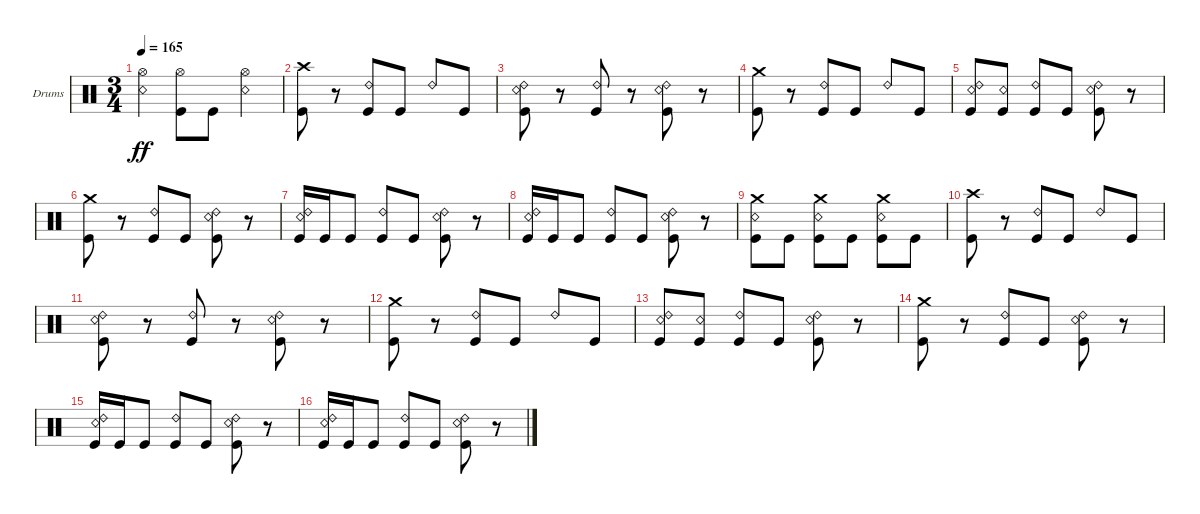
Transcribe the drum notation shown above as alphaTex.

\bracketExtendMode groupsimilarinstruments
\firstSystemTrackNameOrientation horizontal
\otherSystemsTrackNameOrientation horizontal
\track ("Kaleb - Drums" "Drums") {instrument percussion}
\staff {score}
\articulation defaults
\ts (3 4)
\tempo 165
\clef neutral
\ks c
("Hi-Hat (open)" "Snare (rim shot)").4{dy ff} ("Kick (hit)" "Hi-Hat (open)").8 "Kick (hit)".8 ("Hi-Hat (open)" "Snare (rim shot)").4 |
("Kick (hit)" "Crash high (hit)").8 r.8 ("Kick (hit)" "Ride (bell) 2").8 "Kick (hit)".8 "Ride (bell) 2".8 "Kick (hit)".8 |
("Kick (hit)" "Ride (bell) 2" "Snare (rim shot)").8 r.8 ("Kick (hit)" "Ride (bell) 2").8 r.8 ("Kick (hit)" "Ride (bell) 2" "Snare (rim shot)").8 r.8 |
("Kick (hit)" "Crash medium (hit)").8 r.8 ("Kick (hit)" "Ride (bell) 2").8 "Kick (hit)".8 "Ride (bell) 2".8 "Kick (hit)".8 |
("Kick (hit)" "Ride (bell) 2" "Snare (rim shot)").8 ("Kick (hit)" "Snare (rim shot)").8 ("Kick (hit)" "Ride (bell) 2").8 "Kick (hit)".8 ("Kick (hit)" "Ride (bell) 2" "Snare (rim shot)").8 r.8 |
("Kick (hit)" "Crash medium (hit)").8 r.8 ("Kick (hit)" "Ride (bell) 2").8 "Kick (hit)".8 ("Kick (hit)" "Snare (rim shot)" "Ride (bell) 2").8 r.8 |
("Kick (hit)" "Snare (rim shot)" "Ride (bell) 2").16 "Kick (hit)".16 "Kick (hit)".8 ("Kick (hit)" "Ride (bell) 2").8 "Kick (hit)".8 ("Kick (hit)" "Snare (rim shot)" "Ride (bell) 2").8 r.8 |
("Kick (hit)" "Snare (rim shot)" "Ride (bell) 2").16 "Kick (hit)".16 "Kick (hit)".8 ("Kick (hit)" "Ride (bell) 2").8 "Kick (hit)".8 ("Kick (hit)" "Snare (rim shot)" "Ride (bell) 2").8 r.8 |
("Kick (hit)" "Crash medium (hit)" "Snare (rim shot)").8 "Kick (hit)".8 ("Kick (hit)" "Crash medium (hit)" "Snare (rim shot)").8 "Kick (hit)".8 ("Kick (hit)" "Crash medium (hit)" "Snare (rim shot)").8 "Kick (hit)".8 |
("Kick (hit)" "Crash high (hit)").8 r.8 ("Kick (hit)" "Ride (bell) 2").8 "Kick (hit)".8 "Ride (bell) 2".8 "Kick (hit)".8 |
("Kick (hit)" "Ride (bell) 2" "Snare (rim shot)").8 r.8 ("Kick (hit)" "Ride (bell) 2").8 r.8 ("Kick (hit)" "Ride (bell) 2" "Snare (rim shot)").8 r.8 |
("Kick (hit)" "Crash medium (hit)").8 r.8 ("Kick (hit)" "Ride (bell) 2").8 "Kick (hit)".8 "Ride (bell) 2".8 "Kick (hit)".8 |
("Kick (hit)" "Ride (bell) 2" "Snare (rim shot)").8 ("Kick (hit)" "Snare (rim shot)").8 ("Kick (hit)" "Ride (bell) 2").8 "Kick (hit)".8 ("Kick (hit)" "Ride (bell) 2" "Snare (rim shot)").8 r.8 |
("Kick (hit)" "Crash medium (hit)").8 r.8 ("Kick (hit)" "Ride (bell) 2").8 "Kick (hit)".8 ("Kick (hit)" "Snare (rim shot)" "Ride (bell) 2").8 r.8 |
("Kick (hit)" "Snare (rim shot)" "Ride (bell) 2").16 "Kick (hit)".16 "Kick (hit)".8 ("Kick (hit)" "Ride (bell) 2").8 "Kick (hit)".8 ("Kick (hit)" "Snare (rim shot)" "Ride (bell) 2").8 r.8 |
("Kick (hit)" "Snare (rim shot)" "Ride (bell) 2").16 "Kick (hit)".16 "Kick (hit)".8 ("Kick (hit)" "Ride (bell) 2").8 "Kick (hit)".8 ("Kick (hit)" "Snare (rim shot)" "Ride (bell) 2").8 r.8
